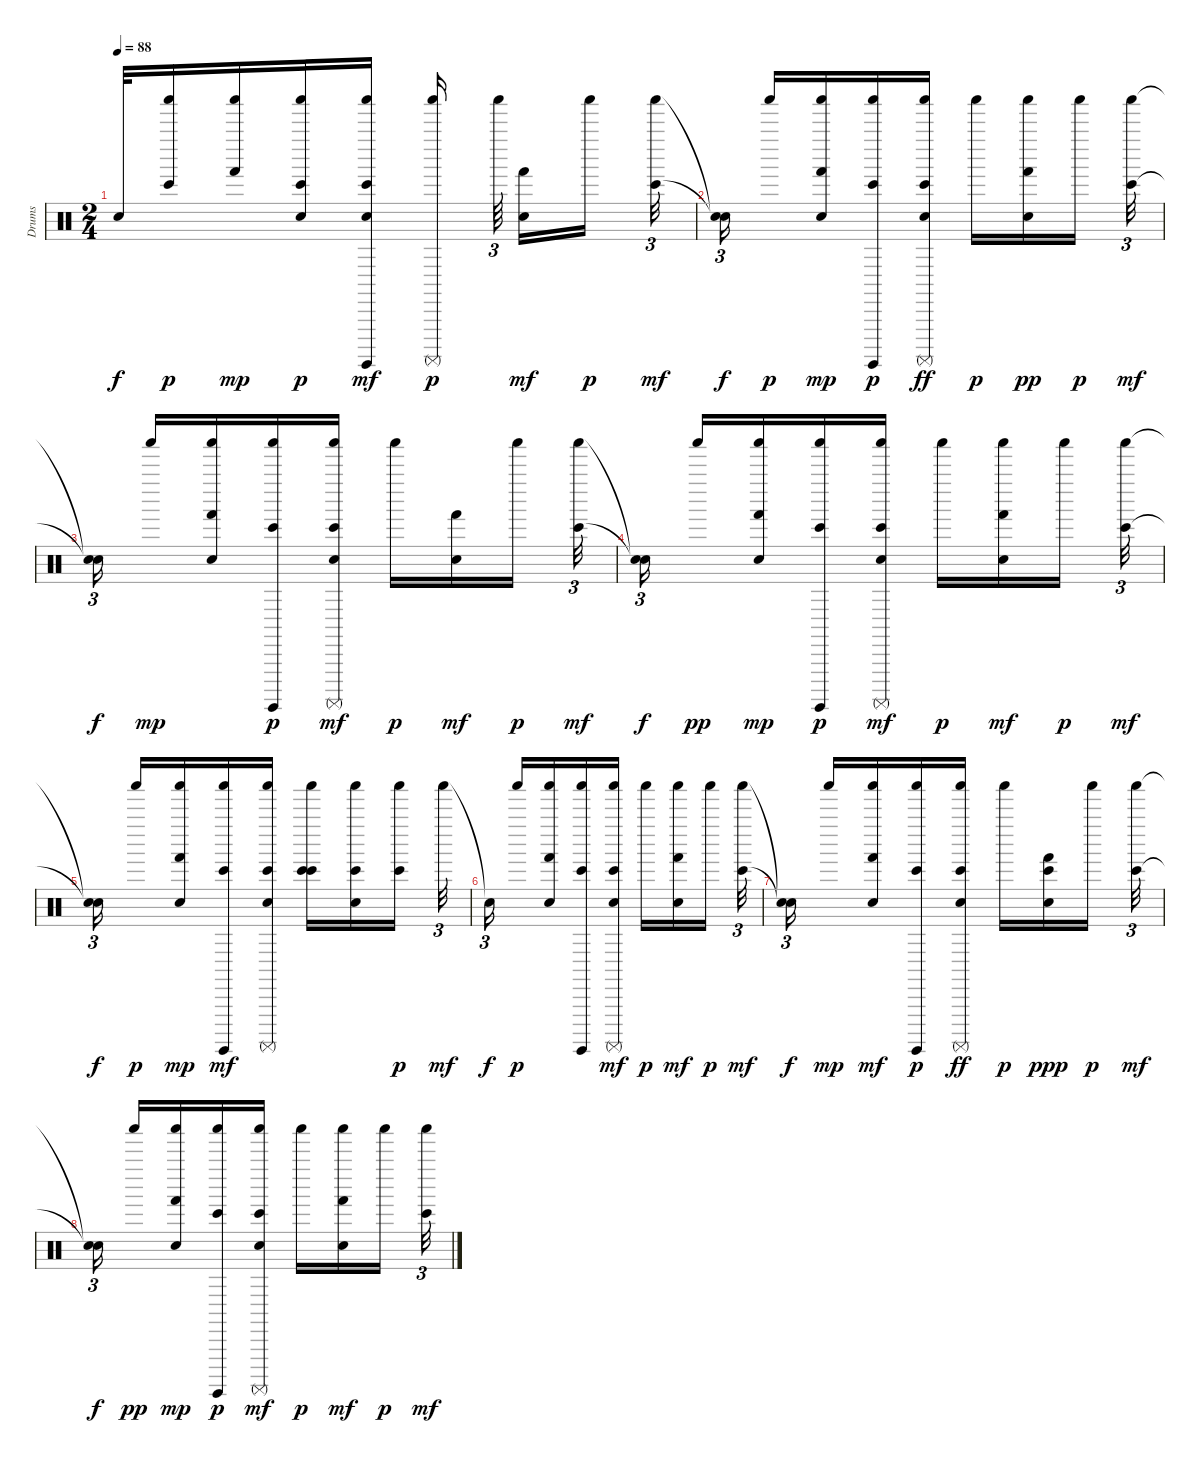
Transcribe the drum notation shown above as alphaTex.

\track ("Drums" "Drums") {instrument percussion}
\staff {score}
\articulation defaults
\ts (2 4)
\tempo 88
\clef neutral
\ks c "Snare (hit)"{t}.32{dy f}
("Bongo High (hit)" "Shaker (hit)").16{dy p} ("Shaker (hit)" "Hand (hit)").16{dy mp} ("Hand Clap (hit)" "Bongo High (hit)" "Shaker (hit)").16{dy p} ("Surdo (hit)" "Shaker (hit)" "Bongo High (hit)" "Hand Clap (hit)").16{dy mf} ("Surdo (mute)" "Shaker (hit)").16{dy p} "Shaker (hit)".64{tu (3 2)} ("Hand (hit)" "Hand Clap (hit)").16{dy mf} "Shaker (hit)".16{dy p} ("Shaker (hit)" "Bongo High (hit)").32{tu (3 2) dy mf} |
("Snare (hit)"{t} "Snare (hit)"{t}).16{tu (3 2) dy f} "Shaker (hit)".16{dy p} ("Shaker (hit)" "Hand Clap (hit)" "Hand (hit)").16{dy mp} ("Bongo High (hit)" "Shaker (hit)" "Surdo (hit)").16{dy p} ("Hand Clap (hit)" "Shaker (hit)" "Bongo High (hit)" "Surdo (mute)").16{dy ff} "Shaker (hit)".16{dy p} ("Hand (hit)" "Hand Clap (hit)" "Shaker (hit)").16{dy pp} "Shaker (hit)".16{dy p} ("Bongo High (hit)" "Shaker (hit)").32{tu (3 2) dy mf} |
("Snare (hit)"{t} "Snare (hit)"{t}).16{tu (3 2) dy f} "Shaker (hit)".16{dy mp} ("Hand Clap (hit)" "Shaker (hit)" "Hand (hit)").16 ("Shaker (hit)" "Bongo High (hit)" "Surdo (hit)").16{dy p} ("Hand Clap (hit)" "Shaker (hit)" "Surdo (mute)" "Bongo High (hit)").16{dy mf} "Shaker (hit)".16{dy p} ("Hand Clap (hit)" "Hand (hit)").16{dy mf} "Shaker (hit)".16{dy p} ("Shaker (hit)" "Bongo High (hit)").32{tu (3 2) dy mf} |
("Snare (hit)"{t} "Snare (hit)"{t}).16{tu (3 2) dy f} "Shaker (hit)".16{dy pp} ("Hand Clap (hit)" "Shaker (hit)" "Hand (hit)").16{dy mp} ("Shaker (hit)" "Bongo High (hit)" "Surdo (hit)").16{dy p} ("Hand Clap (hit)" "Shaker (hit)" "Surdo (mute)" "Bongo High (hit)").16{dy mf} "Shaker (hit)".16{dy p} ("Shaker (hit)" "Hand Clap (hit)" "Hand (hit)").16{dy mf} "Shaker (hit)".16{dy p} ("Shaker (hit)" "Bongo High (hit)").32{tu (3 2) dy mf} |
("Snare (hit)"{t} "Snare (hit)"{t}).16{tu (3 2) dy f} "Shaker (hit)".16{dy p} ("Shaker (hit)" "Hand Clap (hit)" "Hand (hit)").16{dy mp} ("Surdo (hit)" "Shaker (hit)" "Bongo High (hit)").16{dy mf} ("Hand Clap (hit)" "Shaker (hit)" "Surdo (mute)" "Bongo High (hit)").16 ("Bongo High (hit)" "Shaker (hit)" "Bongo High (hit)").16 ("Shaker (hit)" "Bongo High (hit)" "Hand Clap (hit)").16 ("Bongo High (hit)" "Shaker (hit)").16{dy p} "Shaker (hit)".32{tu (3 2) dy mf} |
"Snare (hit)"{t}.16{tu (3 2) dy f} "Shaker (hit)".16{dy p} ("Shaker (hit)" "Hand (hit)" "Hand Clap (hit)").16 ("Bongo High (hit)" "Surdo (hit)" "Shaker (hit)").16 ("Shaker (hit)" "Surdo (mute)" "Hand Clap (hit)" "Bongo High (hit)").16{dy mf} "Shaker (hit)".16{dy p} ("Hand (hit)" "Shaker (hit)" "Hand Clap (hit)").16{dy mf} "Shaker (hit)".16{dy p} ("Bongo High (hit)" "Shaker (hit)").32{tu (3 2) dy mf} |
("Snare (hit)"{t} "Snare (hit)"{t}).16{tu (3 2) dy f} "Shaker (hit)".16{dy mp} ("Hand Clap (hit)" "Shaker (hit)" "Hand (hit)").16{dy mf} ("Shaker (hit)" "Bongo High (hit)" "Surdo (hit)").16{dy p} ("Shaker (hit)" "Hand Clap (hit)" "Bongo High (hit)" "Surdo (mute)").16{dy ff} "Shaker (hit)".16{dy p} ("Hand (hit)" "Hand Clap (hit)" "Bongo High (hit)").16{dy ppp} "Shaker (hit)".16{dy p} ("Shaker (hit)" "Bongo High (hit)").32{tu (3 2) dy mf} |
("Snare (hit)"{t} "Snare (hit)"{t}).16{tu (3 2) dy f} "Shaker (hit)".16{dy pp} ("Shaker (hit)" "Hand Clap (hit)" "Hand (hit)").16{dy mp} ("Surdo (hit)" "Bongo High (hit)" "Shaker (hit)").16{dy p} ("Hand Clap (hit)" "Shaker (hit)" "Surdo (mute)" "Bongo High (hit)").16{dy mf} "Shaker (hit)".16{dy p} ("Hand Clap (hit)" "Shaker (hit)" "Hand (hit)").16{dy mf} "Shaker (hit)".16{dy p} ("Shaker (hit)" "Bongo High (hit)").32{tu (3 2) dy mf}
